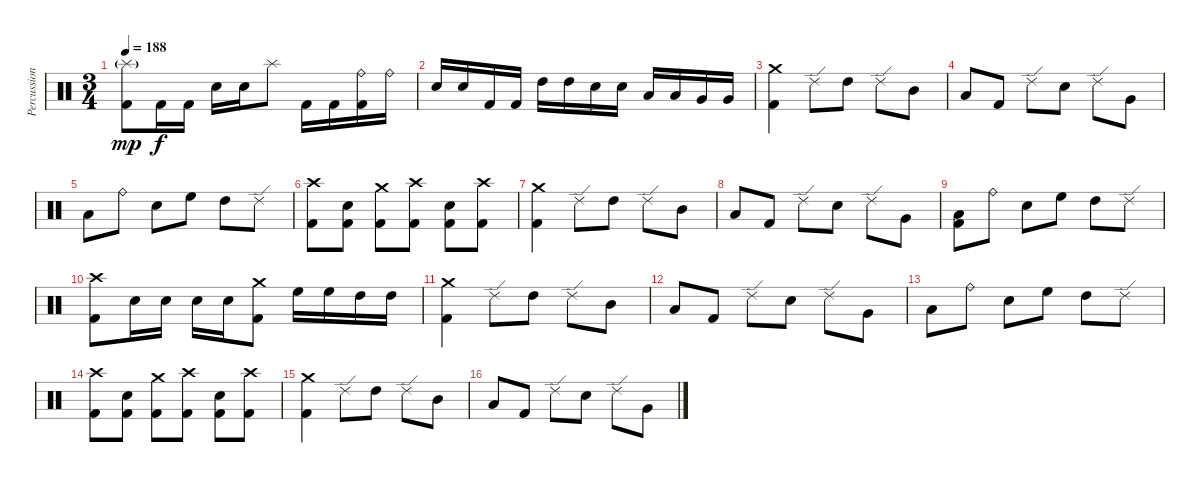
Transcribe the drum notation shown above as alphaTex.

\track ("Percussion" "Percussion") {instrument percussion}
\staff {score}
\articulation defaults
\ts (3 4)
\tempo 188
\clef neutral
\ks c
("Splash (hit)"{g} "Kick (hit) 2").8{dy mp} "Kick (hit) 2".16{dy f} "Kick (hit) 2".16 "Electric Snare (hit)".16 "Electric Snare (hit)".16 "Splash (hit)".8 "Kick (hit) 2".16 "Kick (hit) 2".16 ("Ride (bell)" "Kick (hit) 2").16 "Ride (bell)".16 |
"Electric Snare (hit)".16 "Electric Snare (hit)".16 "Kick (hit) 2".16 "Kick (hit) 2".16 "High Tom (hit)".16 "High Tom (hit)".16 "Electric Snare (hit)".16 "Electric Snare (hit)".16 "Low Tom (hit)".16 "Low Tom (hit)".16 "Very Low Tom (hit)".16 "Very Low Tom (hit)".16 |
("Crash medium (hit)" "Kick (hit) 2").4 "Ride (edge) 2".8 "High Tom (hit)".8 "Ride (edge) 2".8 "Mid Tom (hit)".8 |
"Low Tom (hit)".8 "Kick (hit) 2".8 "Ride (edge) 2".8 "Electric Snare (hit)".8 "Ride (edge) 2".8 "Very Low Tom (hit)".8 |
"Low Floor Tom (hit)".8 "Ride (bell)".8 "Electric Snare (hit)".8 "High Floor Tom (hit)".8 "High Tom (hit)".8 "Ride (edge) 2".8 |
("Crash high (hit)" "Kick (hit) 2").8 ("Electric Snare (hit)" "Kick (hit) 2").8 ("Crash medium (hit)" "Kick (hit) 2").8 ("Crash high (hit)" "Kick (hit) 2").8 ("Electric Snare (hit)" "Kick (hit) 2").8 ("Crash high (hit)" "Kick (hit) 2").8 |
("Crash medium (hit)" "Kick (hit) 2").4 "Ride (edge) 2".8 "High Tom (hit)".8 "Ride (edge) 2".8 "Mid Tom (hit)".8 |
"Low Tom (hit)".8 "Kick (hit) 2".8 "Ride (edge) 2".8 "Electric Snare (hit)".8 "Ride (edge) 2".8 "Very Low Tom (hit)".8 |
("Low Floor Tom (hit)" "Kick (hit) 2").8 "Ride (bell)".8 "Electric Snare (hit)".8 "High Floor Tom (hit)".8 "High Tom (hit)".8 "Ride (edge) 2".8 |
("Crash high (hit)" "Kick (hit) 2").8 "Electric Snare (hit)".16 "Electric Snare (hit)".16 "Electric Snare (hit)".16 "Electric Snare (hit)".16 ("Crash medium (hit)" "Kick (hit) 2").8 "High Floor Tom (hit)".16 "High Floor Tom (hit)".16 "High Tom (hit)".16 "High Tom (hit)".16 |
("Crash medium (hit)" "Kick (hit) 2").4 "Ride (edge) 2".8 "High Tom (hit)".8 "Ride (edge) 2".8 "Mid Tom (hit)".8 |
"Low Tom (hit)".8 "Kick (hit) 2".8 "Ride (edge) 2".8 "Electric Snare (hit)".8 "Ride (edge) 2".8 "Very Low Tom (hit)".8 |
"Low Floor Tom (hit)".8 "Ride (bell)".8 "Electric Snare (hit)".8 "High Floor Tom (hit)".8 "High Tom (hit)".8 "Ride (edge) 2".8 |
("Crash high (hit)" "Kick (hit) 2").8 ("Electric Snare (hit)" "Kick (hit) 2").8 ("Crash medium (hit)" "Kick (hit) 2").8 ("Crash high (hit)" "Kick (hit) 2").8 ("Electric Snare (hit)" "Kick (hit) 2").8 ("Crash high (hit)" "Kick (hit) 2").8 |
("Crash medium (hit)" "Kick (hit) 2").4 "Ride (edge) 2".8 "High Tom (hit)".8 "Ride (edge) 2".8 "Mid Tom (hit)".8 |
"Low Tom (hit)".8 "Kick (hit) 2".8 "Ride (edge) 2".8 "Electric Snare (hit)".8 "Ride (edge) 2".8 "Very Low Tom (hit)".8
